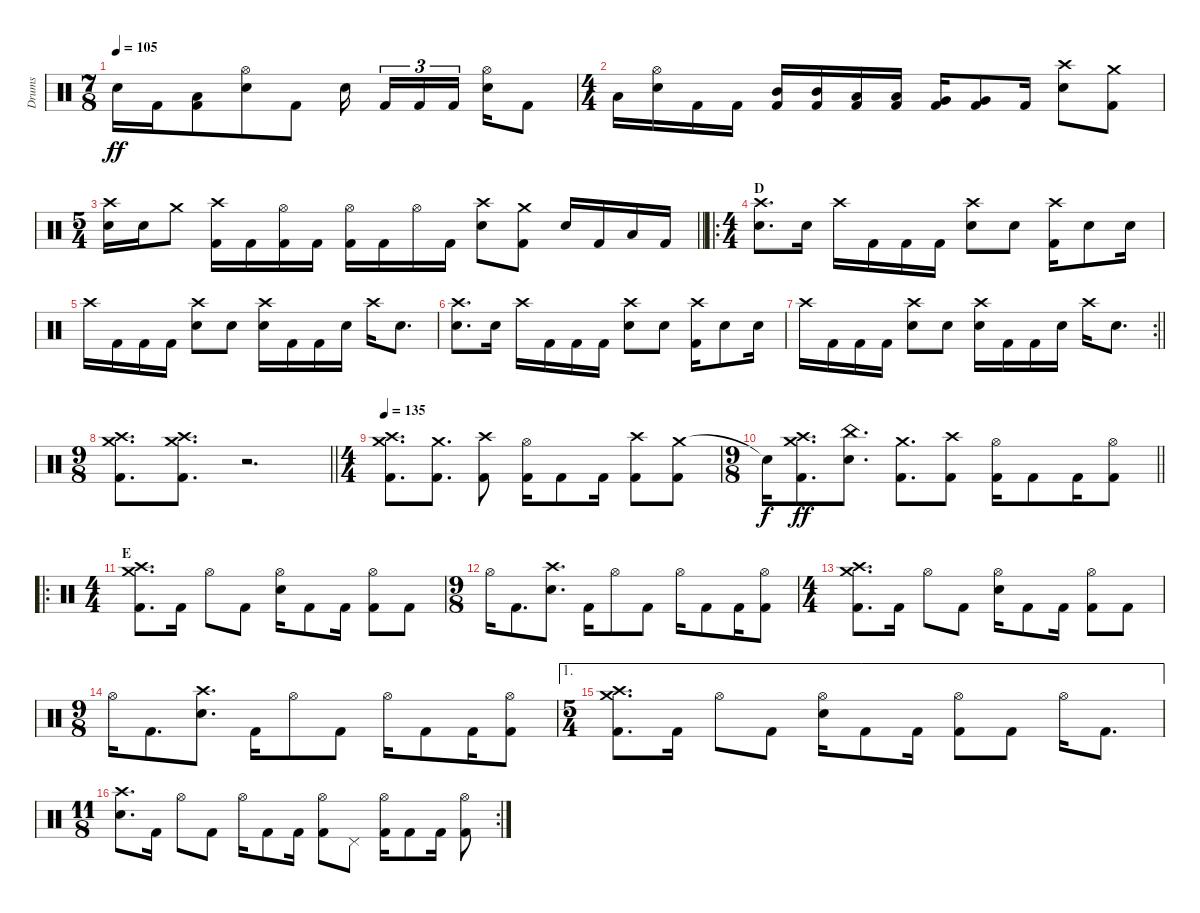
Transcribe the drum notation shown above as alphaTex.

\track ("Drums" "Drums") {instrument percussion}
\staff {score}
\articulation defaults
\ts (7 8)
\tempo 105
\clef neutral
\ks c "Electric Snare (hit)".16{dy ff} "Kick (hit) 2".16
("Low Tom (hit)" "Kick (hit) 2").8 ("Hi-Hat (open)" "Electric Snare (hit)").8 "Kick (hit) 2".8 "Electric Snare (hit)".16{beam splitsecondary} "Kick (hit) 2".16{tu (3 2)} "Kick (hit) 2".16{tu (3 2)} "Kick (hit) 2".16{tu (3 2)} ("Hi-Hat (open)" "Electric Snare (hit)").16 "Kick (hit) 2".8 |
\ts (4 4)
"Low Tom (hit)".16 ("Hi-Hat (open)" "Electric Snare (hit)").16 "Kick (hit) 2".16 "Kick (hit) 2".16 ("Mid Tom (hit)" "Kick (hit) 2").16 ("Mid Tom (hit)" "Kick (hit) 2").16 ("Low Tom (hit)" "Kick (hit) 2").16 ("Low Tom (hit)" "Kick (hit) 2").16 ("Very Low Tom (hit)" "Kick (hit) 2").16 ("Very Low Tom (hit)" "Kick (hit) 2").8 "Kick (hit) 2".16 ("Crash high (hit)" "Electric Snare (hit)").8 ("Crash medium (hit)" "Kick (hit) 2").8 |
\ts (5 4)
\barLineRight lightlight
("Crash high (hit)" "Snare (hit) 2").16 "Electric Snare (hit)".16 "Crash medium (hit)".8 ("Crash high (hit)" "Kick (hit) 2").16 "Kick (hit) 2".16 ("Hi-Hat (open)" "Kick (hit) 2").16 "Kick (hit) 2".16 ("Hi-Hat (open)" "Kick (hit) 2").16 "Kick (hit) 2".16 "Hi-Hat (open)".16 "Kick (hit) 2".16 ("Crash high (hit)" "Electric Snare (hit)").8 ("Crash medium (hit)" "Kick (hit) 2").8 "Electric Snare (hit)".16 "Kick (hit) 2".16 "Low Tom (hit)".16 "Kick (hit) 2".16 |
\ro
\ts (4 4)
\section ("" "D")
("Crash high (hit)" "Electric Snare (hit)").8{d} "Electric Snare (hit)".16 "Crash high (hit)".16 "Kick (hit) 2".16 "Kick (hit) 2".16 "Kick (hit) 2".16 ("Crash high (hit)" "Electric Snare (hit)").8 "Electric Snare (hit)".8 ("Crash high (hit)" "Kick (hit) 2").16 "Electric Snare (hit)".8 "Electric Snare (hit)".16 |
"Crash high (hit)".16 "Kick (hit) 2".16 "Kick (hit) 2".16 "Kick (hit) 2".16 ("Crash high (hit)" "Electric Snare (hit)").8 "Electric Snare (hit)".8 ("Crash high (hit)" "Electric Snare (hit)").16 "Kick (hit) 2".16 "Kick (hit) 2".16 "Electric Snare (hit)".16 "Crash high (hit)".16 "Electric Snare (hit)".8{d} |
("Crash high (hit)" "Electric Snare (hit)").8{d} "Electric Snare (hit)".16 "Crash high (hit)".16 "Kick (hit) 2".16 "Kick (hit) 2".16 "Kick (hit) 2".16 ("Crash high (hit)" "Electric Snare (hit)").8 "Electric Snare (hit)".8 ("Crash high (hit)" "Kick (hit) 2").16 "Electric Snare (hit)".8 "Electric Snare (hit)".16 |
\rc 2
\barLineRight lightlight "Crash high (hit)".16 "Kick (hit) 2".16 "Kick (hit) 2".16 "Kick (hit) 2".16
("Crash high (hit)" "Electric Snare (hit)").8 "Electric Snare (hit)".8 ("Crash high (hit)" "Electric Snare (hit)").16 "Kick (hit) 2".16 "Kick (hit) 2".16 "Electric Snare (hit)".16 "Crash high (hit)".16 "Electric Snare (hit)".8{d} |
\ts (9 8)
\barLineRight lightlight
("Crash medium (hit)" "Crash high (hit)" "Kick (hit) 2").8{d} ("Crash medium (hit)" "Crash high (hit)" "Kick (hit) 2").8{d} r.2{d volume 0} |
\ts (4 4)
\section ("" "")
\tempo 135
("Crash medium (hit)" "Crash high (hit)" "Kick (hit) 2").8{d volume 14} ("Crash medium (hit)" "Kick (hit) 2").8{d} ("Crash high (hit)" "Kick (hit) 2").8 ("Hi-Hat (open)" "Kick (hit) 2").16 "Kick (hit) 2".8 "Kick (hit) 2".16 ("Crash high (hit)" "Kick (hit) 2").8 ("Crash medium (hit)" "Kick (hit) 2").8 |
\ts (9 8)
\barLineRight lightlight "Snare (hit)"{t}.16{dy f}
("Crash medium (hit)" "Crash high (hit)" "Kick (hit) 2").8{d dy ff} ("China (hit)" "Electric Snare (hit)").8{d} ("Crash medium (hit)" "Kick (hit) 2").8{d} ("Crash high (hit)" "Kick (hit) 2").8 ("Hi-Hat (open)" "Kick (hit) 2").16 "Kick (hit) 2".8 "Kick (hit) 2".16 ("Hi-Hat (open)" "Kick (hit) 2").8 |
\ro
\ts (4 4)
\section ("" "E")
("Crash medium (hit)" "Crash high (hit)" "Kick (hit) 2").8{d} "Kick (hit) 2".16 "Hi-Hat (open)".8 "Kick (hit) 2".8 ("Hi-Hat (open)" "Electric Snare (hit)").16 "Kick (hit) 2".8 "Kick (hit) 2".16 ("Hi-Hat (open)" "Kick (hit) 2").8 "Kick (hit) 2".8 |
\ts (9 8)
"Hi-Hat (open)".16 "Kick (hit) 2".8{d} ("Crash high (hit)" "Electric Snare (hit)").8{d} "Kick (hit) 2".16 "Hi-Hat (open)".8 "Kick (hit) 2".8 "Hi-Hat (open)".16 "Kick (hit) 2".8 "Kick (hit) 2".16 ("Hi-Hat (open)" "Kick (hit) 2").8 |
\ts (4 4)
("Crash medium (hit)" "Crash high (hit)" "Kick (hit) 2").8{d} "Kick (hit) 2".16 "Hi-Hat (open)".8 "Kick (hit) 2".8 ("Hi-Hat (open)" "Electric Snare (hit)").16 "Kick (hit) 2".8 "Kick (hit) 2".16 ("Hi-Hat (open)" "Kick (hit) 2").8 "Kick (hit) 2".8 |
\ts (9 8)
"Hi-Hat (open)".16 "Kick (hit) 2".8{d} ("Crash high (hit)" "Electric Snare (hit)").8{d} "Kick (hit) 2".16 "Hi-Hat (open)".8 "Kick (hit) 2".8 "Hi-Hat (open)".16 "Kick (hit) 2".8 "Kick (hit) 2".16 ("Hi-Hat (open)" "Kick (hit) 2").8 |
\ae 1
\ts (5 4)
("Crash medium (hit)" "Crash high (hit)" "Kick (hit) 2").8{d} "Kick (hit) 2".16 "Hi-Hat (open)".8 "Kick (hit) 2".8 ("Hi-Hat (open)" "Electric Snare (hit)").16 "Kick (hit) 2".8 "Kick (hit) 2".16 ("Hi-Hat (open)" "Kick (hit) 2").8 "Kick (hit) 2".8 "Hi-Hat (open)".16 "Kick (hit) 2".8{d} |
\rc 2
\ts (11 8)
("Crash high (hit)" "Electric Snare (hit)").8{d} "Kick (hit) 2".16 "Hi-Hat (open)".8 "Kick (hit) 2".8 "Hi-Hat (open)".16 "Kick (hit) 2".8 "Kick (hit) 2".16 ("Hi-Hat (open)" "Kick (hit) 2").8 "Pedal Hi-Hat (hit)".8 ("Hi-Hat (open)" "Kick (hit) 2").16 "Kick (hit) 2".8 "Kick (hit) 2".16 ("Hi-Hat (open)" "Kick (hit) 2").8
